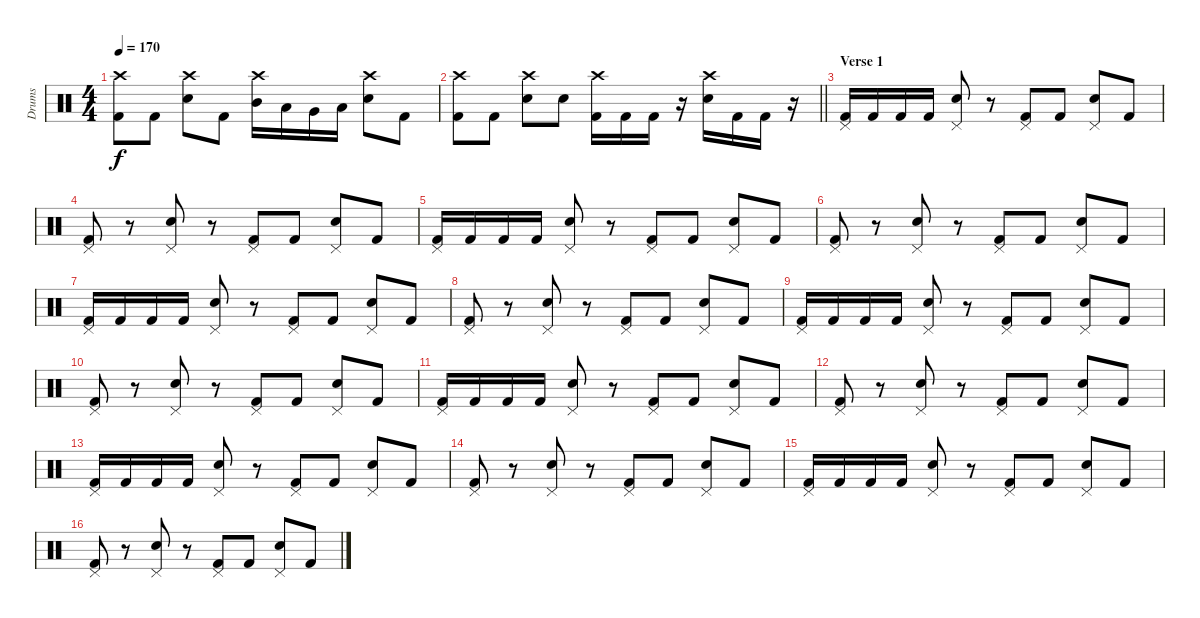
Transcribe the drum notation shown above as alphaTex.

\track ("Drums" "Drums") {instrument percussion}
\staff {score}
\articulation defaults
\ts (4 4)
\tempo 170
\clef neutral
\ks c
("Crash high (hit)" "Kick (hit) 2").8{dy f} "Kick (hit) 2".8 ("Crash high (hit)" "Electric Snare (hit)").8 "Kick (hit) 2".8 ("Crash high (hit)" "Mid Tom (hit)").16 "Low Tom (hit)".16 "Very Low Tom (hit)".16 "Low Tom (hit)".16 ("Crash high (hit)" "Electric Snare (hit)").8 "Kick (hit) 2".8 |
\barLineRight lightlight
("Crash high (hit)" "Kick (hit) 2").8 "Kick (hit) 2".8 ("Crash high (hit)" "Electric Snare (hit)").8 "Electric Snare (hit)".8 ("Crash high (hit)" "Kick (hit) 2").16 "Kick (hit) 2".16 "Kick (hit) 2".16 r.16 ("Crash high (hit)" "Electric Snare (hit)").16 "Kick (hit) 2".16 "Kick (hit) 2".16 r.16 |
\section ("" "Verse 1")
("Pedal Hi-Hat (hit)" "Kick (hit) 2").16 "Kick (hit) 2".16 "Kick (hit) 2".16 "Kick (hit) 2".16 ("Pedal Hi-Hat (hit)" "Electric Snare (hit)").8 r.8 ("Pedal Hi-Hat (hit)" "Kick (hit) 2").8 "Kick (hit) 2".8 ("Pedal Hi-Hat (hit)" "Electric Snare (hit)").8 "Kick (hit) 2".8 |
("Pedal Hi-Hat (hit)" "Kick (hit) 2").8 r.8 ("Pedal Hi-Hat (hit)" "Electric Snare (hit)").8 r.8 ("Pedal Hi-Hat (hit)" "Kick (hit) 2").8 "Kick (hit) 2".8 ("Pedal Hi-Hat (hit)" "Electric Snare (hit)").8 "Kick (hit) 2".8 |
("Pedal Hi-Hat (hit)" "Kick (hit) 2").16 "Kick (hit) 2".16 "Kick (hit) 2".16 "Kick (hit) 2".16 ("Pedal Hi-Hat (hit)" "Electric Snare (hit)").8 r.8 ("Pedal Hi-Hat (hit)" "Kick (hit) 2").8 "Kick (hit) 2".8 ("Pedal Hi-Hat (hit)" "Electric Snare (hit)").8 "Kick (hit) 2".8 |
("Pedal Hi-Hat (hit)" "Kick (hit) 2").8 r.8 ("Pedal Hi-Hat (hit)" "Electric Snare (hit)").8 r.8 ("Pedal Hi-Hat (hit)" "Kick (hit) 2").8 "Kick (hit) 2".8 ("Pedal Hi-Hat (hit)" "Electric Snare (hit)").8 "Kick (hit) 2".8 |
("Pedal Hi-Hat (hit)" "Kick (hit) 2").16 "Kick (hit) 2".16 "Kick (hit) 2".16 "Kick (hit) 2".16 ("Pedal Hi-Hat (hit)" "Electric Snare (hit)").8 r.8 ("Pedal Hi-Hat (hit)" "Kick (hit) 2").8 "Kick (hit) 2".8 ("Pedal Hi-Hat (hit)" "Electric Snare (hit)").8 "Kick (hit) 2".8 |
("Pedal Hi-Hat (hit)" "Kick (hit) 2").8 r.8 ("Pedal Hi-Hat (hit)" "Electric Snare (hit)").8 r.8 ("Pedal Hi-Hat (hit)" "Kick (hit) 2").8 "Kick (hit) 2".8 ("Pedal Hi-Hat (hit)" "Electric Snare (hit)").8 "Kick (hit) 2".8 |
("Pedal Hi-Hat (hit)" "Kick (hit) 2").16 "Kick (hit) 2".16 "Kick (hit) 2".16 "Kick (hit) 2".16 ("Pedal Hi-Hat (hit)" "Electric Snare (hit)").8 r.8 ("Pedal Hi-Hat (hit)" "Kick (hit) 2").8 "Kick (hit) 2".8 ("Pedal Hi-Hat (hit)" "Electric Snare (hit)").8 "Kick (hit) 2".8 |
("Pedal Hi-Hat (hit)" "Kick (hit) 2").8 r.8 ("Pedal Hi-Hat (hit)" "Electric Snare (hit)").8 r.8 ("Pedal Hi-Hat (hit)" "Kick (hit) 2").8 "Kick (hit) 2".8 ("Pedal Hi-Hat (hit)" "Electric Snare (hit)").8 "Kick (hit) 2".8 |
("Pedal Hi-Hat (hit)" "Kick (hit) 2").16 "Kick (hit) 2".16 "Kick (hit) 2".16 "Kick (hit) 2".16 ("Pedal Hi-Hat (hit)" "Electric Snare (hit)").8 r.8 ("Pedal Hi-Hat (hit)" "Kick (hit) 2").8 "Kick (hit) 2".8 ("Pedal Hi-Hat (hit)" "Electric Snare (hit)").8 "Kick (hit) 2".8 |
("Pedal Hi-Hat (hit)" "Kick (hit) 2").8 r.8 ("Pedal Hi-Hat (hit)" "Electric Snare (hit)").8 r.8 ("Pedal Hi-Hat (hit)" "Kick (hit) 2").8 "Kick (hit) 2".8 ("Pedal Hi-Hat (hit)" "Electric Snare (hit)").8 "Kick (hit) 2".8 |
("Pedal Hi-Hat (hit)" "Kick (hit) 2").16 "Kick (hit) 2".16 "Kick (hit) 2".16 "Kick (hit) 2".16 ("Pedal Hi-Hat (hit)" "Electric Snare (hit)").8 r.8 ("Pedal Hi-Hat (hit)" "Kick (hit) 2").8 "Kick (hit) 2".8 ("Pedal Hi-Hat (hit)" "Electric Snare (hit)").8 "Kick (hit) 2".8 |
("Pedal Hi-Hat (hit)" "Kick (hit) 2").8 r.8 ("Pedal Hi-Hat (hit)" "Electric Snare (hit)").8 r.8 ("Pedal Hi-Hat (hit)" "Kick (hit) 2").8 "Kick (hit) 2".8 ("Pedal Hi-Hat (hit)" "Electric Snare (hit)").8 "Kick (hit) 2".8 |
("Pedal Hi-Hat (hit)" "Kick (hit) 2").16 "Kick (hit) 2".16 "Kick (hit) 2".16 "Kick (hit) 2".16 ("Pedal Hi-Hat (hit)" "Electric Snare (hit)").8 r.8 ("Pedal Hi-Hat (hit)" "Kick (hit) 2").8 "Kick (hit) 2".8 ("Pedal Hi-Hat (hit)" "Electric Snare (hit)").8 "Kick (hit) 2".8 |
("Pedal Hi-Hat (hit)" "Kick (hit) 2").8 r.8 ("Pedal Hi-Hat (hit)" "Electric Snare (hit)").8 r.8 ("Pedal Hi-Hat (hit)" "Kick (hit) 2").8 "Kick (hit) 2".8 ("Pedal Hi-Hat (hit)" "Electric Snare (hit)").8 "Kick (hit) 2".8
